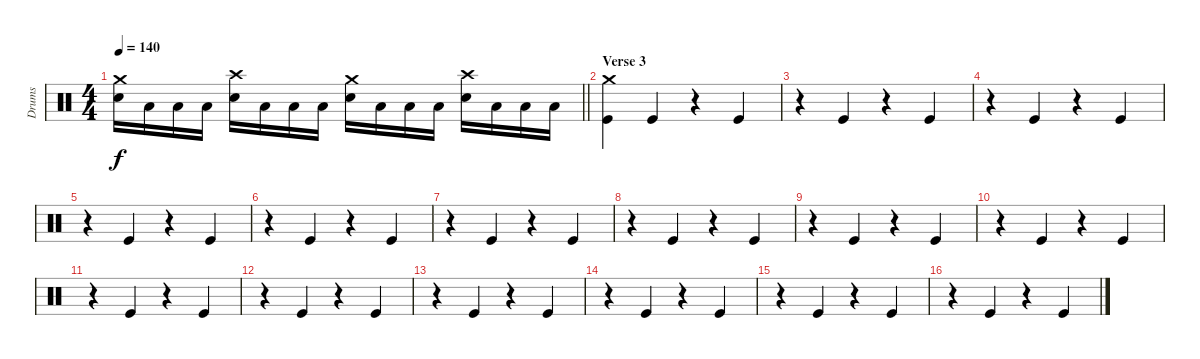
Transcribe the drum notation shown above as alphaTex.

\track ("Drums" "Drums") {instrument percussion}
\staff {score}
\articulation defaults
\ts (4 4)
\tempo 140
\clef neutral
\barLineRight lightlight
\ks c
("Crash medium (hit)" "Snare (hit) 2").16{dy f} "Low Floor Tom (hit)".16 "Low Floor Tom (hit)".16 "Low Floor Tom (hit)".16 ("Crash high (hit)" "Snare (hit) 2").16 "Low Floor Tom (hit)".16 "Low Floor Tom (hit)".16 "Low Floor Tom (hit)".16 ("Crash medium (hit)" "Snare (hit) 2").16 "Low Floor Tom (hit)".16 "Low Floor Tom (hit)".16 "Low Floor Tom (hit)".16 ("Crash high (hit)" "Snare (hit) 2").16 "Low Floor Tom (hit)".16 "Low Floor Tom (hit)".16 "Low Floor Tom (hit)".16 |
\section ("" "Verse 3")
("Crash medium (hit)" "Kick (hit)").4 "Kick (hit)".4 r.4 "Kick (hit)".4 |
r.4 "Kick (hit)".4 r.4 "Kick (hit)".4 |
r.4 "Kick (hit)".4 r.4 "Kick (hit)".4 |
r.4 "Kick (hit)".4 r.4 "Kick (hit)".4 |
r.4 "Kick (hit)".4 r.4 "Kick (hit)".4 |
r.4 "Kick (hit)".4 r.4 "Kick (hit)".4 |
r.4 "Kick (hit)".4 r.4 "Kick (hit)".4 |
r.4 "Kick (hit)".4 r.4 "Kick (hit)".4 |
r.4 "Kick (hit)".4 r.4 "Kick (hit)".4 |
r.4 "Kick (hit)".4 r.4 "Kick (hit)".4 |
r.4 "Kick (hit)".4 r.4 "Kick (hit)".4 |
r.4 "Kick (hit)".4 r.4 "Kick (hit)".4 |
r.4 "Kick (hit)".4 r.4 "Kick (hit)".4 |
r.4 "Kick (hit)".4 r.4 "Kick (hit)".4 |
r.4 "Kick (hit)".4 r.4 "Kick (hit)".4
